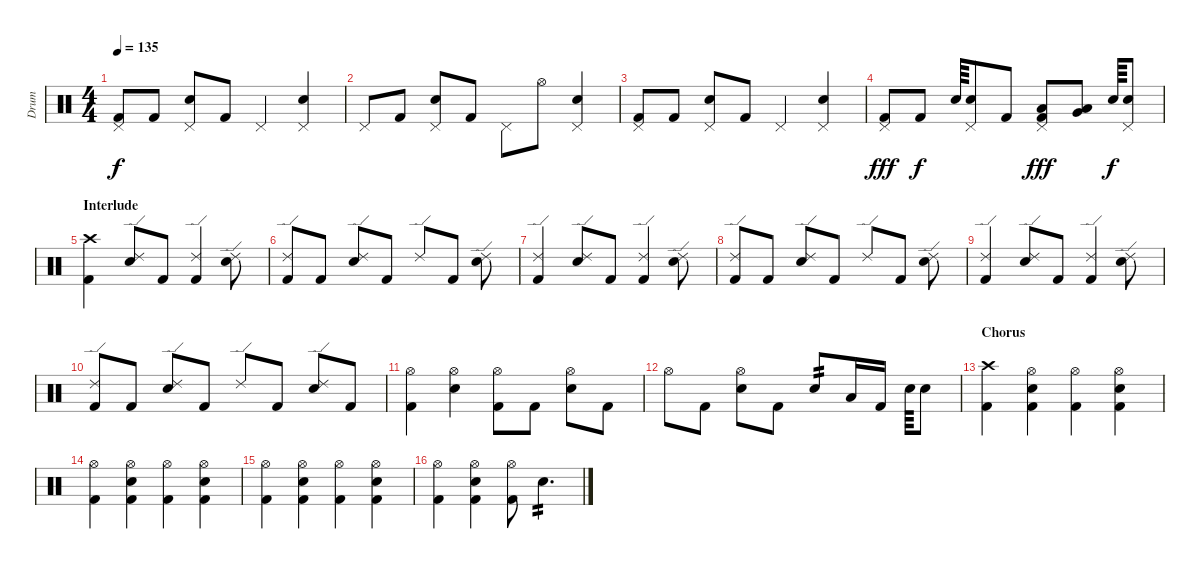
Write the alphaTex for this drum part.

\track ("Drum" "Drum") {instrument percussion bank 127}
\staff {score}
\articulation defaults
\ts (4 4)
\tempo 135
\clef neutral
\ks c
("Pedal Hi-Hat (hit)" "Kick (hit) 2").8{dy f} "Kick (hit) 2".8 ("Pedal Hi-Hat (hit)" "Electric Snare (hit)").8 "Kick (hit) 2".8 "Pedal Hi-Hat (hit)".4 ("Pedal Hi-Hat (hit)" "Electric Snare (hit)").4 |
"Pedal Hi-Hat (hit)".8 "Kick (hit) 2".8 ("Pedal Hi-Hat (hit)" "Electric Snare (hit)").8 "Kick (hit) 2".8 "Pedal Hi-Hat (hit)".8 "Hi-Hat (open)".8 ("Pedal Hi-Hat (hit)" "Electric Snare (hit)").4 |
("Pedal Hi-Hat (hit)" "Kick (hit) 2").8 "Kick (hit) 2".8 ("Pedal Hi-Hat (hit)" "Electric Snare (hit)").8 "Kick (hit) 2".8 "Pedal Hi-Hat (hit)".4 ("Pedal Hi-Hat (hit)" "Electric Snare (hit)").4 |
("Pedal Hi-Hat (hit)" "Kick (hit) 2").8{dy fff} "Kick (hit) 2".8{dy f} "Electric Snare (hit)".64 ("Pedal Hi-Hat (hit)" "Electric Snare (hit)").8 "Kick (hit) 2".8 ("Pedal Hi-Hat (hit)" "Kick (hit) 2" "Low Tom (hit)").8{dy fff} ("Low Tom (hit)" "Very Low Tom (hit)").8 "Electric Snare (hit)".64{dy f} ("Pedal Hi-Hat (hit)" "Electric Snare (hit)").8 |
\section ("" "Interlude")
("Crash high (hit)" "Kick (hit) 2").4 ("Ride (edge) 2" "Electric Snare (hit)").8 "Kick (hit) 2".8 ("Ride (edge) 2" "Kick (hit) 2").4 ("Ride (edge) 2" "Electric Snare (hit)").8 |
("Ride (edge) 2" "Kick (hit) 2").8 "Kick (hit) 2".8 ("Ride (edge) 2" "Electric Snare (hit)").8 "Kick (hit) 2".8 "Ride (edge) 2".8 "Kick (hit) 2".8 ("Ride (edge) 2" "Electric Snare (hit)").8 |
("Ride (edge) 2" "Kick (hit) 2").4 ("Ride (edge) 2" "Electric Snare (hit)").8 "Kick (hit) 2".8 ("Ride (edge) 2" "Kick (hit) 2").4 ("Ride (edge) 2" "Electric Snare (hit)").8 |
("Ride (edge) 2" "Kick (hit) 2").8 "Kick (hit) 2".8 ("Ride (edge) 2" "Electric Snare (hit)").8 "Kick (hit) 2".8 "Ride (edge) 2".8 "Kick (hit) 2".8 ("Ride (edge) 2" "Electric Snare (hit)").8 |
("Ride (edge) 2" "Kick (hit) 2").4 ("Ride (edge) 2" "Electric Snare (hit)").8 "Kick (hit) 2".8 ("Ride (edge) 2" "Kick (hit) 2").4 ("Ride (edge) 2" "Electric Snare (hit)").8 |
("Ride (edge) 2" "Kick (hit) 2").8 "Kick (hit) 2".8 ("Ride (edge) 2" "Electric Snare (hit)").8 "Kick (hit) 2".8 "Ride (edge) 2".8 "Kick (hit) 2".8 ("Ride (edge) 2" "Electric Snare (hit)").8 "Kick (hit) 2".8 |
("Hi-Hat (open)" "Kick (hit) 2").4 ("Hi-Hat (open)" "Electric Snare (hit)").4 ("Hi-Hat (open)" "Kick (hit) 2").8 "Kick (hit) 2".8 ("Hi-Hat (open)" "Electric Snare (hit)").8 "Kick (hit) 2".8 |
"Hi-Hat (open)".8 "Kick (hit) 2".8 ("Hi-Hat (open)" "Electric Snare (hit)").8 "Kick (hit) 2".8 "Electric Snare (hit)".8{tp 2} "Low Tom (hit)".16 "Kick (hit) 2".16 "Electric Snare (hit)".64 "Electric Snare (hit)".8 |
\section ("" "Chorus")
("Kick (hit) 2" "Crash high (hit)").4 ("Hi-Hat (open)" "Kick (hit) 2" "Electric Snare (hit)").4 ("Hi-Hat (open)" "Kick (hit) 2").4 ("Hi-Hat (open)" "Kick (hit) 2" "Electric Snare (hit)").4 |
("Hi-Hat (open)" "Kick (hit) 2").4 ("Hi-Hat (open)" "Kick (hit) 2" "Electric Snare (hit)").4 ("Hi-Hat (open)" "Kick (hit) 2").4 ("Hi-Hat (open)" "Kick (hit) 2" "Electric Snare (hit)").4 |
("Hi-Hat (open)" "Kick (hit) 2").4 ("Hi-Hat (open)" "Kick (hit) 2" "Electric Snare (hit)").4 ("Hi-Hat (open)" "Kick (hit) 2").4 ("Hi-Hat (open)" "Kick (hit) 2" "Electric Snare (hit)").4 |
("Hi-Hat (open)" "Kick (hit) 2").4 ("Hi-Hat (open)" "Kick (hit) 2" "Electric Snare (hit)").4 ("Hi-Hat (open)" "Kick (hit) 2").8 "Electric Snare (hit)".4{d tp 2}
